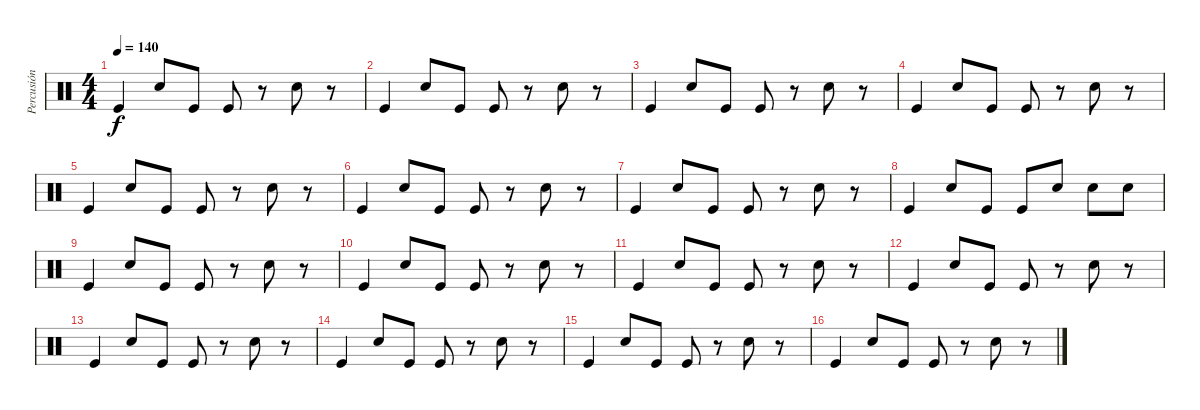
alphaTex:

\track ("Percusión" "Percusión") {instrument percussion}
\staff {score}
\articulation defaults
\ts (4 4)
\tempo 140
\clef neutral
\ks c "Kick (hit)".4{dy f} "Snare (hit) 2".8 "Kick (hit)".8 "Kick (hit)".8
r.8 "Snare (hit) 2".8 r.8 |
"Kick (hit)".4 "Snare (hit) 2".8 "Kick (hit)".8 "Kick (hit)".8 r.8 "Snare (hit) 2".8 r.8 |
"Kick (hit)".4 "Snare (hit) 2".8 "Kick (hit)".8 "Kick (hit)".8 r.8 "Snare (hit) 2".8 r.8 |
"Kick (hit)".4 "Snare (hit) 2".8 "Kick (hit)".8 "Kick (hit)".8 r.8 "Snare (hit) 2".8 r.8 |
"Kick (hit)".4 "Snare (hit) 2".8 "Kick (hit)".8 "Kick (hit)".8 r.8 "Snare (hit) 2".8 r.8 |
"Kick (hit)".4 "Snare (hit) 2".8 "Kick (hit)".8 "Kick (hit)".8 r.8 "Snare (hit) 2".8 r.8 |
"Kick (hit)".4 "Snare (hit) 2".8 "Kick (hit)".8 "Kick (hit)".8 r.8 "Snare (hit) 2".8 r.8 |
"Kick (hit)".4 "Snare (hit) 2".8 "Kick (hit)".8 "Kick (hit)".8 "Snare (hit) 2".8 "Snare (hit) 2".8 "Snare (hit) 2".8 |
"Kick (hit)".4 "Snare (hit) 2".8 "Kick (hit)".8 "Kick (hit)".8 r.8 "Snare (hit) 2".8 r.8 |
"Kick (hit)".4 "Snare (hit) 2".8 "Kick (hit)".8 "Kick (hit)".8 r.8 "Snare (hit) 2".8 r.8 |
"Kick (hit)".4 "Snare (hit) 2".8 "Kick (hit)".8 "Kick (hit)".8 r.8 "Snare (hit) 2".8 r.8 |
"Kick (hit)".4 "Snare (hit) 2".8 "Kick (hit)".8 "Kick (hit)".8 r.8 "Snare (hit) 2".8 r.8 |
"Kick (hit)".4 "Snare (hit) 2".8 "Kick (hit)".8 "Kick (hit)".8 r.8 "Snare (hit) 2".8 r.8 |
"Kick (hit)".4 "Snare (hit) 2".8 "Kick (hit)".8 "Kick (hit)".8 r.8 "Snare (hit) 2".8 r.8 |
"Kick (hit)".4 "Snare (hit) 2".8 "Kick (hit)".8 "Kick (hit)".8 r.8 "Snare (hit) 2".8 r.8 |
"Kick (hit)".4 "Snare (hit) 2".8 "Kick (hit)".8 "Kick (hit)".8 r.8 "Snare (hit) 2".8 r.8
